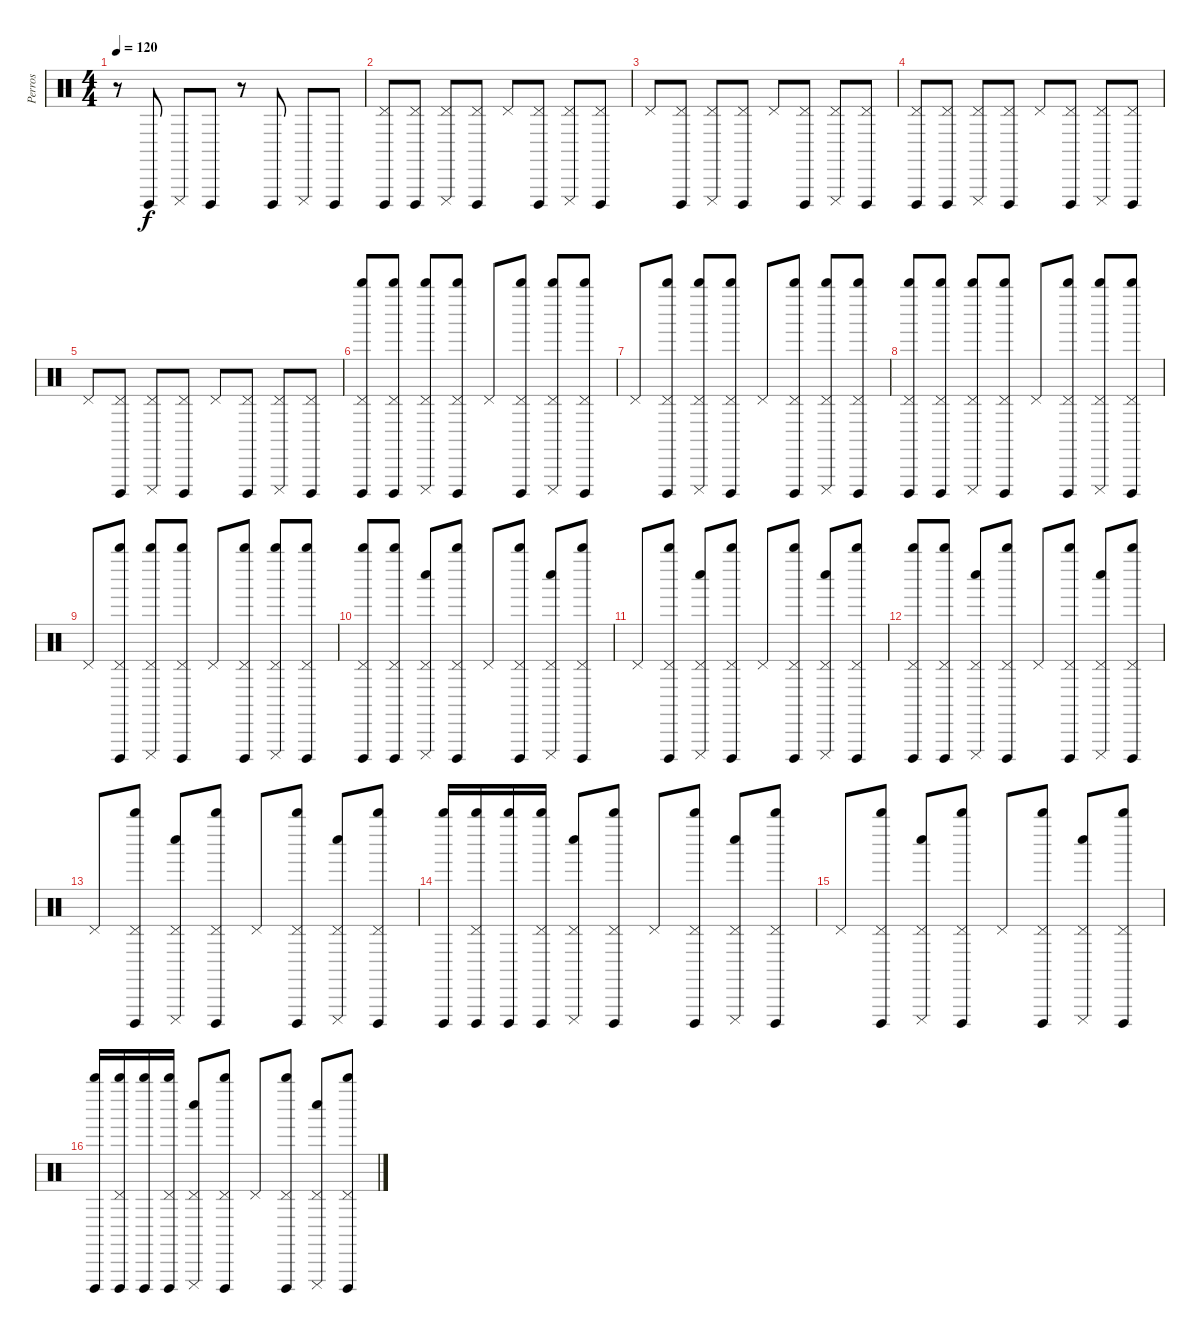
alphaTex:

\track ("Perros" "Perros") {instrument percussion}
\staff {score}
\articulation defaults
\ts (4 4)
\tempo 120
\clef neutral
\ks c
r.8{dy f} "Cuica (open)".8 "Cuica (mute)".8 "Cuica (open)".8 r.8 "Cuica (open)".8 "Cuica (mute)".8 "Cuica (open)".8 |
("Cuica (open)" "Pedal Hi-Hat (hit)").8 ("Cuica (open)" "Pedal Hi-Hat (hit)").8 ("Cuica (mute)" "Pedal Hi-Hat (hit)").8 ("Cuica (open)" "Pedal Hi-Hat (hit)").8 "Pedal Hi-Hat (hit)".8 ("Cuica (open)" "Pedal Hi-Hat (hit)").8 ("Cuica (mute)" "Pedal Hi-Hat (hit)").8 ("Cuica (open)" "Pedal Hi-Hat (hit)").8 |
"Pedal Hi-Hat (hit)".8 ("Cuica (open)" "Pedal Hi-Hat (hit)").8 ("Cuica (mute)" "Pedal Hi-Hat (hit)").8 ("Cuica (open)" "Pedal Hi-Hat (hit)").8 "Pedal Hi-Hat (hit)".8 ("Cuica (open)" "Pedal Hi-Hat (hit)").8 ("Cuica (mute)" "Pedal Hi-Hat (hit)").8 ("Cuica (open)" "Pedal Hi-Hat (hit)").8 |
("Cuica (open)" "Pedal Hi-Hat (hit)").8 ("Cuica (open)" "Pedal Hi-Hat (hit)").8 ("Cuica (mute)" "Pedal Hi-Hat (hit)").8 ("Cuica (open)" "Pedal Hi-Hat (hit)").8 "Pedal Hi-Hat (hit)".8 ("Cuica (open)" "Pedal Hi-Hat (hit)").8 ("Cuica (mute)" "Pedal Hi-Hat (hit)").8 ("Cuica (open)" "Pedal Hi-Hat (hit)").8 |
"Pedal Hi-Hat (hit)".8 ("Cuica (open)" "Pedal Hi-Hat (hit)").8 ("Cuica (mute)" "Pedal Hi-Hat (hit)").8 ("Cuica (open)" "Pedal Hi-Hat (hit)").8 "Pedal Hi-Hat (hit)".8 ("Cuica (open)" "Pedal Hi-Hat (hit)").8 ("Cuica (mute)" "Pedal Hi-Hat (hit)").8 ("Cuica (open)" "Pedal Hi-Hat (hit)").8 |
("Cuica (open)" "Whistle high (hit)" "Pedal Hi-Hat (hit)").8 ("Cuica (open)" "Whistle high (hit)" "Pedal Hi-Hat (hit)").8 ("Cuica (mute)" "Whistle high (hit)" "Pedal Hi-Hat (hit)").8 ("Cuica (open)" "Whistle high (hit)" "Pedal Hi-Hat (hit)").8 "Pedal Hi-Hat (hit)".8 ("Cuica (open)" "Whistle high (hit)" "Pedal Hi-Hat (hit)").8 ("Cuica (mute)" "Whistle high (hit)" "Pedal Hi-Hat (hit)").8 ("Cuica (open)" "Whistle high (hit)" "Pedal Hi-Hat (hit)").8 |
"Pedal Hi-Hat (hit)".8 ("Cuica (open)" "Whistle high (hit)" "Pedal Hi-Hat (hit)").8 ("Cuica (mute)" "Whistle high (hit)" "Pedal Hi-Hat (hit)").8 ("Cuica (open)" "Whistle high (hit)" "Pedal Hi-Hat (hit)").8 "Pedal Hi-Hat (hit)".8 ("Cuica (open)" "Whistle high (hit)" "Pedal Hi-Hat (hit)").8 ("Cuica (mute)" "Whistle high (hit)" "Pedal Hi-Hat (hit)").8 ("Cuica (open)" "Whistle high (hit)" "Pedal Hi-Hat (hit)").8 |
("Cuica (open)" "Whistle high (hit)" "Pedal Hi-Hat (hit)").8 ("Cuica (open)" "Whistle high (hit)" "Pedal Hi-Hat (hit)").8 ("Cuica (mute)" "Whistle high (hit)" "Pedal Hi-Hat (hit)").8 ("Cuica (open)" "Whistle high (hit)" "Pedal Hi-Hat (hit)").8 "Pedal Hi-Hat (hit)".8 ("Cuica (open)" "Whistle high (hit)" "Pedal Hi-Hat (hit)").8 ("Cuica (mute)" "Whistle high (hit)" "Pedal Hi-Hat (hit)").8 ("Cuica (open)" "Whistle high (hit)" "Pedal Hi-Hat (hit)").8 |
"Pedal Hi-Hat (hit)".8 ("Cuica (open)" "Whistle high (hit)" "Pedal Hi-Hat (hit)").8 ("Cuica (mute)" "Whistle high (hit)" "Pedal Hi-Hat (hit)").8 ("Cuica (open)" "Whistle high (hit)" "Pedal Hi-Hat (hit)").8 "Pedal Hi-Hat (hit)".8 ("Cuica (open)" "Whistle high (hit)" "Pedal Hi-Hat (hit)").8 ("Cuica (mute)" "Whistle high (hit)" "Pedal Hi-Hat (hit)").8 ("Cuica (open)" "Whistle high (hit)" "Pedal Hi-Hat (hit)").8 |
("Cuica (open)" "Whistle high (hit)" "Pedal Hi-Hat (hit)").8 ("Cuica (open)" "Whistle high (hit)" "Pedal Hi-Hat (hit)").8 ("Cuica (mute)" "Whistle low (hit)" "Pedal Hi-Hat (hit)").8 ("Cuica (open)" "Whistle high (hit)" "Pedal Hi-Hat (hit)").8 "Pedal Hi-Hat (hit)".8 ("Cuica (open)" "Whistle high (hit)" "Pedal Hi-Hat (hit)").8 ("Cuica (mute)" "Whistle low (hit)" "Pedal Hi-Hat (hit)").8 ("Cuica (open)" "Whistle high (hit)" "Pedal Hi-Hat (hit)").8 |
"Pedal Hi-Hat (hit)".8 ("Cuica (open)" "Whistle high (hit)" "Pedal Hi-Hat (hit)").8 ("Cuica (mute)" "Whistle low (hit)" "Pedal Hi-Hat (hit)").8 ("Cuica (open)" "Whistle high (hit)" "Pedal Hi-Hat (hit)").8 "Pedal Hi-Hat (hit)".8 ("Cuica (open)" "Whistle high (hit)" "Pedal Hi-Hat (hit)").8 ("Cuica (mute)" "Whistle low (hit)" "Pedal Hi-Hat (hit)").8 ("Cuica (open)" "Whistle high (hit)" "Pedal Hi-Hat (hit)").8 |
("Cuica (open)" "Whistle high (hit)" "Pedal Hi-Hat (hit)").8 ("Cuica (open)" "Whistle high (hit)" "Pedal Hi-Hat (hit)").8 ("Cuica (mute)" "Whistle low (hit)" "Pedal Hi-Hat (hit)").8 ("Cuica (open)" "Whistle high (hit)" "Pedal Hi-Hat (hit)").8 "Pedal Hi-Hat (hit)".8 ("Cuica (open)" "Whistle high (hit)" "Pedal Hi-Hat (hit)").8 ("Cuica (mute)" "Whistle low (hit)" "Pedal Hi-Hat (hit)").8 ("Cuica (open)" "Whistle high (hit)" "Pedal Hi-Hat (hit)").8 |
"Pedal Hi-Hat (hit)".8 ("Cuica (open)" "Whistle high (hit)" "Pedal Hi-Hat (hit)").8 ("Cuica (mute)" "Whistle low (hit)" "Pedal Hi-Hat (hit)").8 ("Cuica (open)" "Whistle high (hit)" "Pedal Hi-Hat (hit)").8 "Pedal Hi-Hat (hit)".8 ("Cuica (open)" "Whistle high (hit)" "Pedal Hi-Hat (hit)").8 ("Cuica (mute)" "Whistle low (hit)" "Pedal Hi-Hat (hit)").8 ("Cuica (open)" "Whistle high (hit)" "Pedal Hi-Hat (hit)").8 |
("Cuica (open)" "Whistle high (hit)").16 ("Cuica (open)" "Whistle high (hit)" "Pedal Hi-Hat (hit)").16 ("Cuica (open)" "Whistle high (hit)").16 ("Cuica (open)" "Whistle high (hit)" "Pedal Hi-Hat (hit)").16 ("Cuica (mute)" "Whistle low (hit)" "Pedal Hi-Hat (hit)").8 ("Cuica (open)" "Whistle high (hit)" "Pedal Hi-Hat (hit)").8 "Pedal Hi-Hat (hit)".8 ("Cuica (open)" "Whistle high (hit)" "Pedal Hi-Hat (hit)").8 ("Cuica (mute)" "Whistle low (hit)" "Pedal Hi-Hat (hit)").8 ("Cuica (open)" "Whistle high (hit)" "Pedal Hi-Hat (hit)").8 |
"Pedal Hi-Hat (hit)".8 ("Cuica (open)" "Whistle high (hit)" "Pedal Hi-Hat (hit)").8 ("Cuica (mute)" "Whistle low (hit)" "Pedal Hi-Hat (hit)").8 ("Cuica (open)" "Whistle high (hit)" "Pedal Hi-Hat (hit)").8 "Pedal Hi-Hat (hit)".8 ("Cuica (open)" "Whistle high (hit)" "Pedal Hi-Hat (hit)").8 ("Cuica (mute)" "Whistle low (hit)" "Pedal Hi-Hat (hit)").8 ("Cuica (open)" "Whistle high (hit)" "Pedal Hi-Hat (hit)").8 |
("Cuica (open)" "Whistle high (hit)").16 ("Cuica (open)" "Whistle high (hit)" "Pedal Hi-Hat (hit)").16 ("Cuica (open)" "Whistle high (hit)").16 ("Cuica (open)" "Whistle high (hit)" "Pedal Hi-Hat (hit)").16 ("Cuica (mute)" "Whistle low (hit)" "Pedal Hi-Hat (hit)").8 ("Cuica (open)" "Whistle high (hit)" "Pedal Hi-Hat (hit)").8 "Pedal Hi-Hat (hit)".8 ("Cuica (open)" "Whistle high (hit)" "Pedal Hi-Hat (hit)").8 ("Cuica (mute)" "Whistle low (hit)" "Pedal Hi-Hat (hit)").8 ("Cuica (open)" "Whistle high (hit)" "Pedal Hi-Hat (hit)").8
